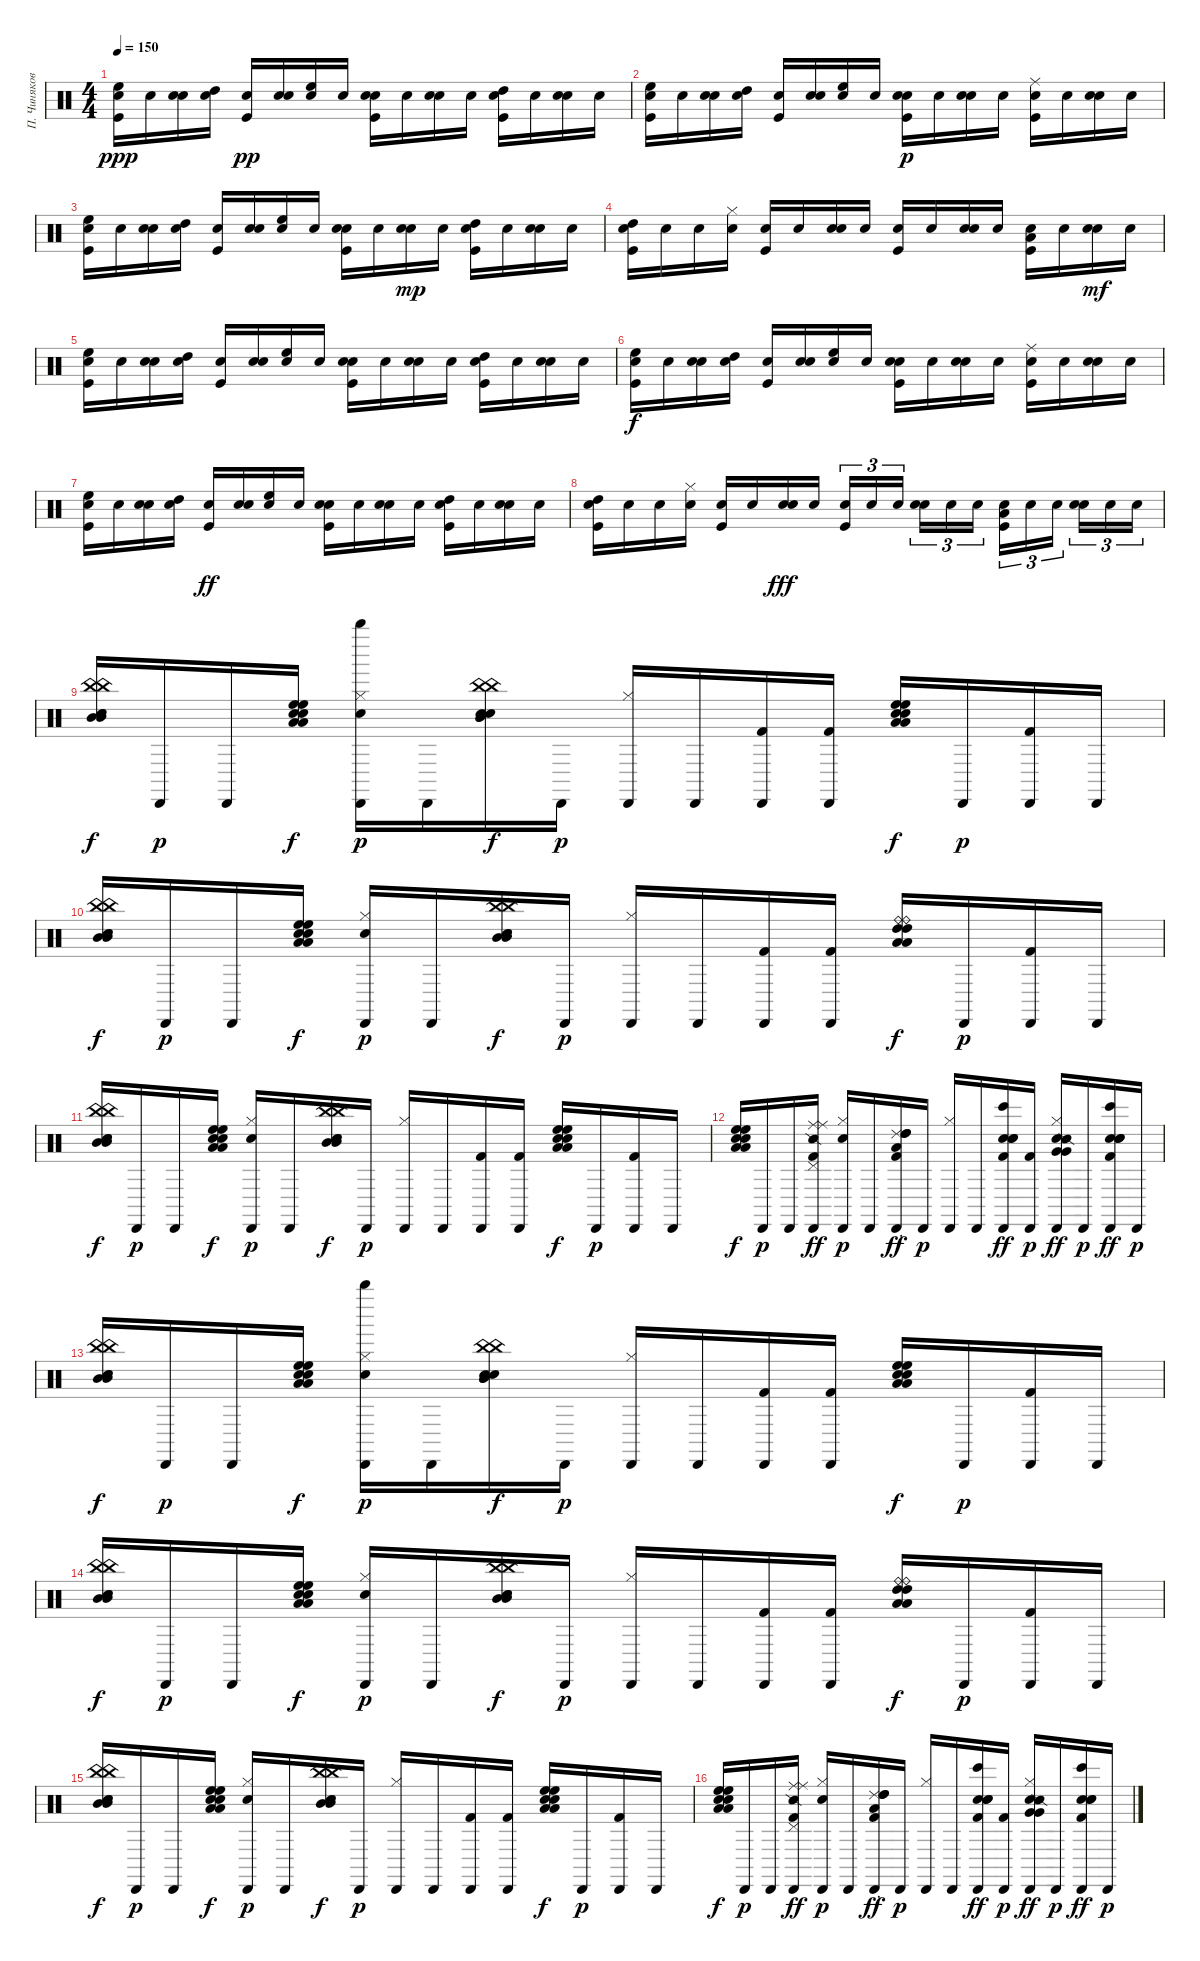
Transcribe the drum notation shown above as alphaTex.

\track ("П. Чиняков" "П. Чиняков") {instrument percussion}
\staff {score}
\articulation defaults
\ts (4 4)
\tempo 150
\clef neutral
\ks c
("Electric Snare (hit)" "Kick (hit)" "High Floor Tom (hit)").16{dy ppp} "Electric Snare (hit)".16 ("Electric Snare (hit)" "Snare (hit) 2").16 ("Electric Snare (hit)" "High Tom (hit)").16 ("Electric Snare (hit)" "Kick (hit)").16{dy pp} ("Electric Snare (hit)" "Snare (hit) 2").16 ("Electric Snare (hit)" "High Floor Tom (hit)").16 "Electric Snare (hit)".16 ("Electric Snare (hit)" "Kick (hit)" "Snare (hit) 2").16 "Electric Snare (hit)".16 ("Electric Snare (hit)" "Snare (hit) 2").16 "Electric Snare (hit)".16 ("Electric Snare (hit)" "Kick (hit)" "High Tom (hit)").16 "Electric Snare (hit)".16 ("Electric Snare (hit)" "Snare (hit) 2").16 "Electric Snare (hit)".16 |
("Kick (hit)" "Electric Snare (hit)" "High Floor Tom (hit)").16 "Electric Snare (hit)".16 ("Electric Snare (hit)" "Snare (hit) 2").16 ("Electric Snare (hit)" "High Tom (hit)").16 ("Electric Snare (hit)" "Kick (hit)").16 ("Electric Snare (hit)" "Snare (hit) 2").16 ("Electric Snare (hit)" "High Floor Tom (hit)").16 "Electric Snare (hit)".16 ("Kick (hit)" "Electric Snare (hit)" "Snare (hit) 2").16{dy p} "Electric Snare (hit)".16 ("Electric Snare (hit)" "Snare (hit) 2").16 "Electric Snare (hit)".16 ("Kick (hit)" "Electric Snare (hit)" "Ride (middle)").16 "Electric Snare (hit)".16 ("Electric Snare (hit)" "Snare (hit) 2").16 "Electric Snare (hit)".16 |
("Kick (hit)" "Electric Snare (hit)" "High Floor Tom (hit)").16 "Electric Snare (hit)".16 ("Electric Snare (hit)" "Snare (hit) 2").16 ("Electric Snare (hit)" "High Tom (hit)").16 ("Electric Snare (hit)" "Kick (hit)").16 ("Electric Snare (hit)" "Snare (hit) 2").16 ("Electric Snare (hit)" "High Floor Tom (hit)").16 "Electric Snare (hit)".16 ("Electric Snare (hit)" "Kick (hit)" "Snare (hit) 2").16 "Electric Snare (hit)".16 ("Electric Snare (hit)" "Snare (hit) 2").16{dy mp} "Electric Snare (hit)".16 ("Kick (hit)" "Electric Snare (hit)" "High Tom (hit)").16 "Electric Snare (hit)".16 ("Electric Snare (hit)" "Snare (hit) 2").16 "Electric Snare (hit)".16 |
("Kick (hit)" "Electric Snare (hit)" "High Tom (hit)").16 "Electric Snare (hit)".16 "Electric Snare (hit)".16 ("Electric Snare (hit)" "Hi-Hat (closed)").16 ("Electric Snare (hit)" "Kick (hit)").16 "Electric Snare (hit)".16 ("Electric Snare (hit)" "Hand Clap (hit)").16 "Electric Snare (hit)".16 ("Kick (hit)" "Electric Snare (hit)").16 "Electric Snare (hit)".16 ("Electric Snare (hit)" "Snare (hit) 2").16 "Electric Snare (hit)".16 ("Electric Snare (hit)" "Kick (hit)" "Low Floor Tom (hit)").16 "Electric Snare (hit)".16 ("Electric Snare (hit)" "Snare (hit) 2").16{dy mf} "Electric Snare (hit)".16 |
("Kick (hit)" "Electric Snare (hit)" "High Floor Tom (hit)").16 "Electric Snare (hit)".16 ("Electric Snare (hit)" "Snare (hit) 2").16 ("Electric Snare (hit)" "High Tom (hit)").16 ("Electric Snare (hit)" "Kick (hit)").16 ("Electric Snare (hit)" "Snare (hit) 2").16 ("Electric Snare (hit)" "High Floor Tom (hit)").16 "Electric Snare (hit)".16 ("Kick (hit)" "Electric Snare (hit)" "Snare (hit) 2").16 "Electric Snare (hit)".16 ("Electric Snare (hit)" "Snare (hit) 2").16 "Electric Snare (hit)".16 ("Kick (hit)" "Electric Snare (hit)" "High Tom (hit)").16 "Electric Snare (hit)".16 ("Electric Snare (hit)" "Snare (hit) 2").16 "Electric Snare (hit)".16 |
("Kick (hit)" "Electric Snare (hit)" "High Floor Tom (hit)").16{dy f} "Electric Snare (hit)".16 ("Electric Snare (hit)" "Snare (hit) 2").16 ("Electric Snare (hit)" "High Tom (hit)").16 ("Kick (hit)" "Electric Snare (hit)").16 ("Electric Snare (hit)" "Snare (hit) 2").16 ("Electric Snare (hit)" "High Floor Tom (hit)").16 "Electric Snare (hit)".16 ("Electric Snare (hit)" "Kick (hit)" "Snare (hit) 2").16 "Electric Snare (hit)".16 ("Electric Snare (hit)" "Snare (hit) 2").16 "Electric Snare (hit)".16 ("Electric Snare (hit)" "Kick (hit)" "Ride (middle)").16 "Electric Snare (hit)".16 ("Electric Snare (hit)" "Snare (hit) 2").16 "Electric Snare (hit)".16 |
("Kick (hit)" "Electric Snare (hit)" "High Floor Tom (hit)").16 "Electric Snare (hit)".16 ("Electric Snare (hit)" "Snare (hit) 2").16 ("Electric Snare (hit)" "High Tom (hit)").16 ("Electric Snare (hit)" "Kick (hit)").16{dy ff} ("Electric Snare (hit)" "Snare (hit) 2").16 ("Electric Snare (hit)" "High Floor Tom (hit)").16 "Electric Snare (hit)".16 ("Kick (hit)" "Electric Snare (hit)" "Snare (hit) 2").16 "Electric Snare (hit)".16 ("Electric Snare (hit)" "Snare (hit) 2").16 "Electric Snare (hit)".16 ("Electric Snare (hit)" "Kick (hit)" "High Tom (hit)").16 "Electric Snare (hit)".16 ("Electric Snare (hit)" "Snare (hit) 2").16 "Electric Snare (hit)".16 |
("Kick (hit)" "Electric Snare (hit)" "High Tom (hit)").16 "Electric Snare (hit)".16 "Electric Snare (hit)".16 ("Electric Snare (hit)" "Hi-Hat (closed)").16 ("Electric Snare (hit)" "Kick (hit)").16 "Electric Snare (hit)".16 ("Electric Snare (hit)" "Hand Clap (hit)").16{dy fff} "Electric Snare (hit)".16 ("Electric Snare (hit)" "Kick (hit)").16{tu (3 2)} "Electric Snare (hit)".16{tu (3 2)} "Electric Snare (hit)".16{tu (3 2) beam splitsecondary} ("Electric Snare (hit)" "Snare (hit) 2").16{tu (3 2)} "Electric Snare (hit)".16{tu (3 2)} "Electric Snare (hit)".16{tu (3 2)} ("Electric Snare (hit)" "Kick (hit)" "Low Floor Tom (hit)").16{tu (3 2)} "Electric Snare (hit)".16{tu (3 2)} "Electric Snare (hit)".16{tu (3 2) beam splitsecondary} ("Electric Snare (hit)" "Snare (hit) 2").16{tu (3 2)} "Electric Snare (hit)".16{tu (3 2)} "Electric Snare (hit)".16{tu (3 2)} |
("China (hit)" "Mid Tom (hit)" "Electric Snare (hit)" "China (hit)" "Mid Tom (hit)" "Electric Snare (hit)").16{dy f} "Cabasa (hit)".16{dy p} "Cabasa (hit)".16 ("High Floor Tom (hit)" "Low Tom (hit)" "Snare (hit) 2" "High Floor Tom (hit)" "Low Tom (hit)" "Snare (hit) 2").16{dy f} ("Hi-Hat (closed)" "Cabasa (hit)" "Snare (hit) 2" "Whistle high (hit)").16{dy p} "Cabasa (hit)".16 ("China (hit)" "Mid Tom (hit)" "Electric Snare (hit)" "China (hit)" "Mid Tom (hit)" "Electric Snare (hit)").16{dy f} "Cabasa (hit)".16{dy p} ("Hi-Hat (closed)" "Cabasa (hit)").16 "Cabasa (hit)".16 ("Cabasa (hit)" "Kick (hit) 2").16 ("Cabasa (hit)" "Kick (hit) 2").16 ("High Floor Tom (hit)" "Low Tom (hit)" "Snare (hit) 2" "High Floor Tom (hit)" "Low Tom (hit)" "Snare (hit) 2").16{dy f} "Cabasa (hit)".16{dy p} ("Cabasa (hit)" "Kick (hit) 2").16 "Cabasa (hit)".16 |
("China (hit)" "Mid Tom (hit)" "Electric Snare (hit)" "China (hit)" "Mid Tom (hit)" "Electric Snare (hit)").16{dy f} "Cabasa (hit)".16{dy p} "Cabasa (hit)".16 ("High Floor Tom (hit)" "Low Tom (hit)" "Snare (hit) 2" "High Floor Tom (hit)" "Low Tom (hit)" "Snare (hit) 2").16{dy f} ("Hi-Hat (closed)" "Cabasa (hit)" "Snare (hit) 2").16{dy p} "Cabasa (hit)".16 ("China (hit)" "Mid Tom (hit)" "Electric Snare (hit)" "China (hit)" "Mid Tom (hit)" "Electric Snare (hit)").16{dy f} "Cabasa (hit)".16{dy p} ("Hi-Hat (closed)" "Cabasa (hit)").16 "Cabasa (hit)".16 ("Cabasa (hit)" "Kick (hit) 2").16 ("Cabasa (hit)" "Kick (hit) 2").16 ("Ride (bell)" "High Tom (hit)" "Low Floor Tom (hit)" "Ride (bell)" "High Tom (hit)" "Low Floor Tom (hit)").16{dy f} "Cabasa (hit)".16{dy p} ("Cabasa (hit)" "Kick (hit) 2").16 "Cabasa (hit)".16 |
("China (hit)" "Mid Tom (hit)" "Electric Snare (hit)" "China (hit)" "Mid Tom (hit)" "Electric Snare (hit)").16{dy f} "Cabasa (hit)".16{dy p} "Cabasa (hit)".16 ("High Floor Tom (hit)" "Low Tom (hit)" "Snare (hit) 2" "High Floor Tom (hit)" "Low Tom (hit)" "Snare (hit) 2").16{dy f} ("Hi-Hat (closed)" "Cabasa (hit)" "Snare (hit) 2").16{dy p} "Cabasa (hit)".16 ("China (hit)" "Mid Tom (hit)" "Electric Snare (hit)" "China (hit)" "Mid Tom (hit)" "Electric Snare (hit)").16{dy f} "Cabasa (hit)".16{dy p} ("Hi-Hat (closed)" "Cabasa (hit)").16 "Cabasa (hit)".16 ("Cabasa (hit)" "Kick (hit) 2").16 ("Cabasa (hit)" "Kick (hit) 2").16 ("High Floor Tom (hit)" "Low Tom (hit)" "Snare (hit) 2" "High Floor Tom (hit)" "Low Tom (hit)" "Snare (hit) 2").16{dy f} "Cabasa (hit)".16{dy p} ("Cabasa (hit)" "Kick (hit) 2").16 "Cabasa (hit)".16 |
("High Floor Tom (hit)" "Low Tom (hit)" "Snare (hit) 2" "High Floor Tom (hit)" "Low Tom (hit)" "Snare (hit) 2").16{dy f} "Cabasa (hit)".16{dy p} "Cabasa (hit)".16 ("Cabasa (hit)" "Kick (hit) 2" "Snare (side stick) 2" "Ride (middle)" "Pedal Hi-Hat (hit)" "Ride (middle)").16{dy ff} ("Hi-Hat (closed)" "Cabasa (hit)" "Snare (hit) 2").16{dy p} "Cabasa (hit)".16 ("Cabasa (hit)" "Kick (hit) 2" "Ride (choke) 2" "High Tom (hit)" "Low Floor Tom (hit)" "High Tom (hit)").16{dy ff} "Cabasa (hit)".16{dy p} ("Hi-Hat (closed)" "Cabasa (hit)").16 "Cabasa (hit)".16 ("Electric Snare (hit)" "Electric Snare (hit)" "Cabasa (hit)" "Kick (hit) 2" "Bongo High (hit)" "Electric Snare (hit)").16{dy ff} ("Cabasa (hit)" "Kick (hit) 2").16{dy p} ("Very Low Tom (hit)" "Very Low Tom (hit)" "Hi-Hat (closed)" "Cabasa (hit)" "Snare (hit) 2" "Snare (side stick) 2").16{dy ff} "Cabasa (hit)".16{dy p} ("Electric Snare (hit)" "Electric Snare (hit)" "Cabasa (hit)" "Kick (hit) 2" "Bongo High (hit)" "Electric Snare (hit)").16{dy ff} "Cabasa (hit)".16{dy p} |
("China (hit)" "Mid Tom (hit)" "Electric Snare (hit)" "China (hit)" "Mid Tom (hit)" "Electric Snare (hit)").16{dy f} "Cabasa (hit)".16{dy p} "Cabasa (hit)".16 ("High Floor Tom (hit)" "Low Tom (hit)" "Snare (hit) 2" "High Floor Tom (hit)" "Low Tom (hit)" "Snare (hit) 2").16{dy f} ("Hi-Hat (closed)" "Cabasa (hit)" "Snare (hit) 2" "Whistle high (hit)").16{dy p} "Cabasa (hit)".16 ("China (hit)" "Mid Tom (hit)" "Electric Snare (hit)" "China (hit)" "Mid Tom (hit)" "Electric Snare (hit)").16{dy f} "Cabasa (hit)".16{dy p} ("Hi-Hat (closed)" "Cabasa (hit)").16 "Cabasa (hit)".16 ("Cabasa (hit)" "Kick (hit) 2").16 ("Cabasa (hit)" "Kick (hit) 2").16 ("High Floor Tom (hit)" "Low Tom (hit)" "Snare (hit) 2" "High Floor Tom (hit)" "Low Tom (hit)" "Snare (hit) 2").16{dy f} "Cabasa (hit)".16{dy p} ("Cabasa (hit)" "Kick (hit) 2").16 "Cabasa (hit)".16 |
("China (hit)" "Mid Tom (hit)" "Electric Snare (hit)" "China (hit)" "Mid Tom (hit)" "Electric Snare (hit)").16{dy f} "Cabasa (hit)".16{dy p} "Cabasa (hit)".16 ("High Floor Tom (hit)" "Low Tom (hit)" "Snare (hit) 2" "High Floor Tom (hit)" "Low Tom (hit)" "Snare (hit) 2").16{dy f} ("Hi-Hat (closed)" "Cabasa (hit)" "Snare (hit) 2").16{dy p} "Cabasa (hit)".16 ("China (hit)" "Mid Tom (hit)" "Electric Snare (hit)" "China (hit)" "Mid Tom (hit)" "Electric Snare (hit)").16{dy f} "Cabasa (hit)".16{dy p} ("Hi-Hat (closed)" "Cabasa (hit)").16 "Cabasa (hit)".16 ("Cabasa (hit)" "Kick (hit) 2").16 ("Cabasa (hit)" "Kick (hit) 2").16 ("Ride (bell)" "High Tom (hit)" "Low Floor Tom (hit)" "Ride (bell)" "High Tom (hit)" "Low Floor Tom (hit)").16{dy f} "Cabasa (hit)".16{dy p} ("Cabasa (hit)" "Kick (hit) 2").16 "Cabasa (hit)".16 |
("China (hit)" "Mid Tom (hit)" "Electric Snare (hit)" "China (hit)" "Mid Tom (hit)" "Electric Snare (hit)").16{dy f} "Cabasa (hit)".16{dy p} "Cabasa (hit)".16 ("High Floor Tom (hit)" "Low Tom (hit)" "Snare (hit) 2" "High Floor Tom (hit)" "Low Tom (hit)" "Snare (hit) 2").16{dy f} ("Hi-Hat (closed)" "Cabasa (hit)" "Snare (hit) 2").16{dy p} "Cabasa (hit)".16 ("China (hit)" "Mid Tom (hit)" "Electric Snare (hit)" "China (hit)" "Mid Tom (hit)" "Electric Snare (hit)").16{dy f} "Cabasa (hit)".16{dy p} ("Hi-Hat (closed)" "Cabasa (hit)").16 "Cabasa (hit)".16 ("Cabasa (hit)" "Kick (hit) 2").16 ("Cabasa (hit)" "Kick (hit) 2").16 ("High Floor Tom (hit)" "Low Tom (hit)" "Snare (hit) 2" "High Floor Tom (hit)" "Low Tom (hit)" "Snare (hit) 2").16{dy f} "Cabasa (hit)".16{dy p} ("Cabasa (hit)" "Kick (hit) 2").16 "Cabasa (hit)".16 |
("High Floor Tom (hit)" "Low Tom (hit)" "Snare (hit) 2" "High Floor Tom (hit)" "Low Tom (hit)" "Snare (hit) 2").16{dy f} "Cabasa (hit)".16{dy p} "Cabasa (hit)".16 ("Cabasa (hit)" "Kick (hit) 2" "Snare (side stick) 2" "Ride (middle)" "Pedal Hi-Hat (hit)" "Ride (middle)").16{dy ff} ("Hi-Hat (closed)" "Cabasa (hit)" "Snare (hit) 2").16{dy p} "Cabasa (hit)".16 ("Cabasa (hit)" "Kick (hit) 2" "Ride (choke) 2" "High Tom (hit)" "Low Floor Tom (hit)" "High Tom (hit)").16{dy ff} "Cabasa (hit)".16{dy p} ("Hi-Hat (closed)" "Cabasa (hit)").16 "Cabasa (hit)".16 ("Electric Snare (hit)" "Electric Snare (hit)" "Cabasa (hit)" "Kick (hit) 2" "Bongo High (hit)" "Electric Snare (hit)").16{dy ff} ("Cabasa (hit)" "Kick (hit) 2").16{dy p} ("Very Low Tom (hit)" "Very Low Tom (hit)" "Hi-Hat (closed)" "Cabasa (hit)" "Snare (hit) 2" "Snare (side stick) 2").16{dy ff} "Cabasa (hit)".16{dy p} ("Electric Snare (hit)" "Electric Snare (hit)" "Cabasa (hit)" "Kick (hit) 2" "Bongo High (hit)" "Electric Snare (hit)").16{dy ff} "Cabasa (hit)".16{dy p}
